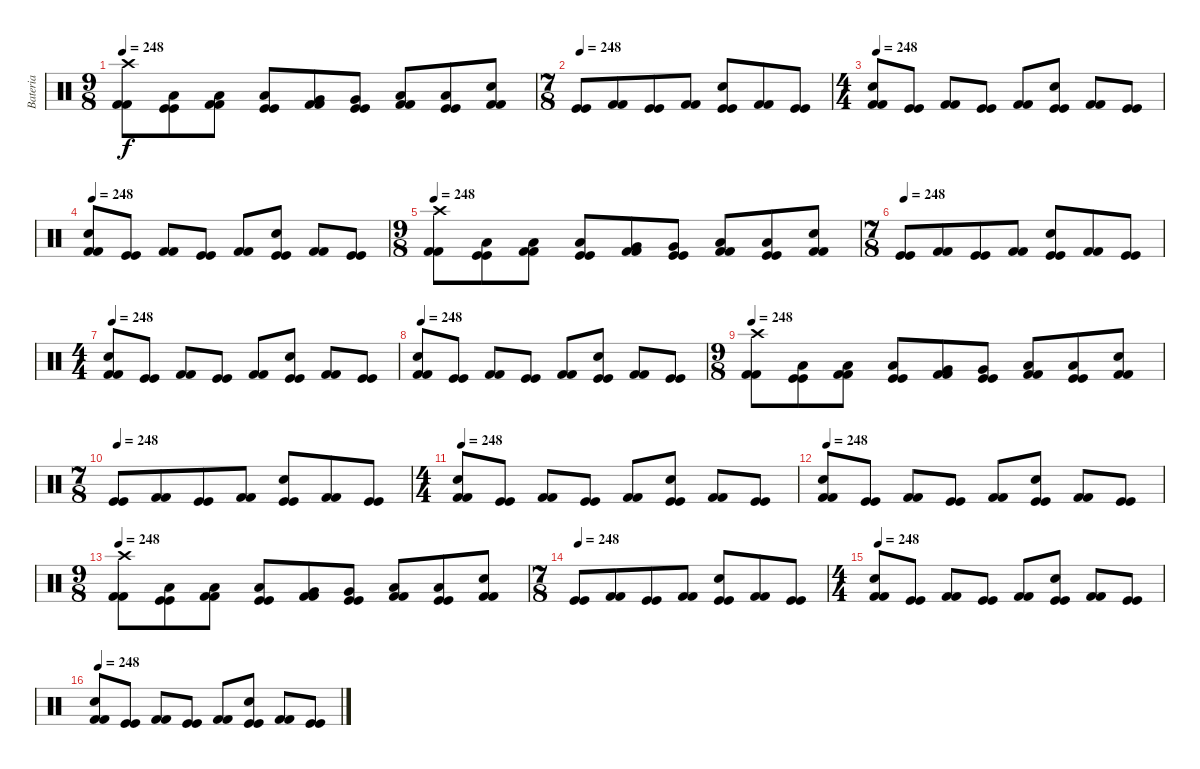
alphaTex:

\track ("Bateria" "Bateria") {instrument percussion}
\staff {score}
\articulation defaults
\ts (9 8)
\tempo 248
\clef neutral
\ks c
("Kick (hit) 2" "Kick (hit) 2" "Crash high (hit)").8{dy f} ("Kick (hit)" "Kick (hit)" "Low Floor Tom (hit)").8 ("Kick (hit) 2" "Kick (hit) 2" "Low Floor Tom (hit)").8 ("Kick (hit)" "Kick (hit)" "Low Floor Tom (hit)").8 ("Kick (hit) 2" "Kick (hit) 2" "Very Low Tom (hit)").8 ("Kick (hit)" "Kick (hit)" "Very Low Tom (hit)").8 ("Kick (hit) 2" "Kick (hit) 2" "Low Tom (hit)").8 ("Kick (hit)" "Kick (hit)" "Low Tom (hit)").8 ("Kick (hit) 2" "Kick (hit) 2" "Snare (hit) 2").8 |
\ts (7 8)
\tempo 248
("Kick (hit)" "Kick (hit)").8 ("Kick (hit) 2" "Kick (hit) 2").8 ("Kick (hit)" "Kick (hit)").8 ("Kick (hit) 2" "Kick (hit) 2").8 ("Kick (hit)" "Kick (hit)" "Snare (hit) 2").8 ("Kick (hit) 2" "Kick (hit) 2").8 ("Kick (hit)" "Kick (hit)").8 |
\ts (4 4)
\tempo 248
("Kick (hit) 2" "Kick (hit) 2" "Snare (hit) 2").8 ("Kick (hit)" "Kick (hit)").8 ("Kick (hit) 2" "Kick (hit) 2").8 ("Kick (hit)" "Kick (hit)").8 ("Kick (hit) 2" "Kick (hit) 2").8 ("Kick (hit)" "Kick (hit)" "Snare (hit) 2").8 ("Kick (hit) 2" "Kick (hit) 2").8 ("Kick (hit)" "Kick (hit)").8 |
\tempo 248
("Kick (hit) 2" "Kick (hit) 2" "Snare (hit) 2").8 ("Kick (hit)" "Kick (hit)").8 ("Kick (hit) 2" "Kick (hit) 2").8 ("Kick (hit)" "Kick (hit)").8 ("Kick (hit) 2" "Kick (hit) 2").8 ("Kick (hit)" "Kick (hit)" "Snare (hit) 2").8 ("Kick (hit) 2" "Kick (hit) 2").8 ("Kick (hit)" "Kick (hit)").8 |
\ts (9 8)
\tempo 248
("Kick (hit) 2" "Kick (hit) 2" "Crash high (hit)").8 ("Kick (hit)" "Kick (hit)" "Low Floor Tom (hit)").8 ("Kick (hit) 2" "Kick (hit) 2" "Low Floor Tom (hit)").8 ("Kick (hit)" "Kick (hit)" "Low Floor Tom (hit)").8 ("Kick (hit) 2" "Kick (hit) 2" "Very Low Tom (hit)").8 ("Kick (hit)" "Kick (hit)" "Very Low Tom (hit)").8 ("Kick (hit) 2" "Kick (hit) 2" "Low Tom (hit)").8 ("Kick (hit)" "Kick (hit)" "Low Tom (hit)").8 ("Kick (hit) 2" "Kick (hit) 2" "Snare (hit) 2").8 |
\ts (7 8)
\tempo 248
("Kick (hit)" "Kick (hit)").8 ("Kick (hit) 2" "Kick (hit) 2").8 ("Kick (hit)" "Kick (hit)").8 ("Kick (hit) 2" "Kick (hit) 2").8 ("Kick (hit)" "Kick (hit)" "Snare (hit) 2").8 ("Kick (hit) 2" "Kick (hit) 2").8 ("Kick (hit)" "Kick (hit)").8 |
\ts (4 4)
\tempo 248
("Kick (hit) 2" "Kick (hit) 2" "Snare (hit) 2").8 ("Kick (hit)" "Kick (hit)").8 ("Kick (hit) 2" "Kick (hit) 2").8 ("Kick (hit)" "Kick (hit)").8 ("Kick (hit) 2" "Kick (hit) 2").8 ("Kick (hit)" "Kick (hit)" "Snare (hit) 2").8 ("Kick (hit) 2" "Kick (hit) 2").8 ("Kick (hit)" "Kick (hit)").8 |
\tempo 248
("Kick (hit) 2" "Kick (hit) 2" "Snare (hit) 2").8 ("Kick (hit)" "Kick (hit)").8 ("Kick (hit) 2" "Kick (hit) 2").8 ("Kick (hit)" "Kick (hit)").8 ("Kick (hit) 2" "Kick (hit) 2").8 ("Kick (hit)" "Kick (hit)" "Snare (hit) 2").8 ("Kick (hit) 2" "Kick (hit) 2").8 ("Kick (hit)" "Kick (hit)").8 |
\ts (9 8)
\tempo 248
("Kick (hit) 2" "Kick (hit) 2" "Crash high (hit)").8 ("Kick (hit)" "Kick (hit)" "Low Floor Tom (hit)").8 ("Kick (hit) 2" "Kick (hit) 2" "Low Floor Tom (hit)").8 ("Kick (hit)" "Kick (hit)" "Low Floor Tom (hit)").8 ("Kick (hit) 2" "Kick (hit) 2" "Very Low Tom (hit)").8 ("Kick (hit)" "Kick (hit)" "Very Low Tom (hit)").8 ("Kick (hit) 2" "Kick (hit) 2" "Low Tom (hit)").8 ("Kick (hit)" "Kick (hit)" "Low Tom (hit)").8 ("Kick (hit) 2" "Kick (hit) 2" "Snare (hit) 2").8 |
\ts (7 8)
\tempo 248
("Kick (hit)" "Kick (hit)").8 ("Kick (hit) 2" "Kick (hit) 2").8 ("Kick (hit)" "Kick (hit)").8 ("Kick (hit) 2" "Kick (hit) 2").8 ("Kick (hit)" "Kick (hit)" "Snare (hit) 2").8 ("Kick (hit) 2" "Kick (hit) 2").8 ("Kick (hit)" "Kick (hit)").8 |
\ts (4 4)
\tempo 248
("Kick (hit) 2" "Kick (hit) 2" "Snare (hit) 2").8 ("Kick (hit)" "Kick (hit)").8 ("Kick (hit) 2" "Kick (hit) 2").8 ("Kick (hit)" "Kick (hit)").8 ("Kick (hit) 2" "Kick (hit) 2").8 ("Kick (hit)" "Kick (hit)" "Snare (hit) 2").8 ("Kick (hit) 2" "Kick (hit) 2").8 ("Kick (hit)" "Kick (hit)").8 |
\tempo 248
("Kick (hit) 2" "Kick (hit) 2" "Snare (hit) 2").8 ("Kick (hit)" "Kick (hit)").8 ("Kick (hit) 2" "Kick (hit) 2").8 ("Kick (hit)" "Kick (hit)").8 ("Kick (hit) 2" "Kick (hit) 2").8 ("Kick (hit)" "Kick (hit)" "Snare (hit) 2").8 ("Kick (hit) 2" "Kick (hit) 2").8 ("Kick (hit)" "Kick (hit)").8 |
\ts (9 8)
\tempo 248
("Kick (hit) 2" "Kick (hit) 2" "Crash high (hit)").8 ("Kick (hit)" "Kick (hit)" "Low Floor Tom (hit)").8 ("Kick (hit) 2" "Kick (hit) 2" "Low Floor Tom (hit)").8 ("Kick (hit)" "Kick (hit)" "Low Floor Tom (hit)").8 ("Kick (hit) 2" "Kick (hit) 2" "Very Low Tom (hit)").8 ("Kick (hit)" "Kick (hit)" "Very Low Tom (hit)").8 ("Kick (hit) 2" "Kick (hit) 2" "Low Tom (hit)").8 ("Kick (hit)" "Kick (hit)" "Low Tom (hit)").8 ("Kick (hit) 2" "Kick (hit) 2" "Snare (hit) 2").8 |
\ts (7 8)
\tempo 248
("Kick (hit)" "Kick (hit)").8 ("Kick (hit) 2" "Kick (hit) 2").8 ("Kick (hit)" "Kick (hit)").8 ("Kick (hit) 2" "Kick (hit) 2").8 ("Kick (hit)" "Kick (hit)" "Snare (hit) 2").8 ("Kick (hit) 2" "Kick (hit) 2").8 ("Kick (hit)" "Kick (hit)").8 |
\ts (4 4)
\tempo 248
("Kick (hit) 2" "Kick (hit) 2" "Snare (hit) 2").8 ("Kick (hit)" "Kick (hit)").8 ("Kick (hit) 2" "Kick (hit) 2").8 ("Kick (hit)" "Kick (hit)").8 ("Kick (hit) 2" "Kick (hit) 2").8 ("Kick (hit)" "Kick (hit)" "Snare (hit) 2").8 ("Kick (hit) 2" "Kick (hit) 2").8 ("Kick (hit)" "Kick (hit)").8 |
\tempo 248
("Kick (hit) 2" "Kick (hit) 2" "Snare (hit) 2").8 ("Kick (hit)" "Kick (hit)").8 ("Kick (hit) 2" "Kick (hit) 2").8 ("Kick (hit)" "Kick (hit)").8 ("Kick (hit) 2" "Kick (hit) 2").8 ("Kick (hit)" "Kick (hit)" "Snare (hit) 2").8 ("Kick (hit) 2" "Kick (hit) 2").8 ("Kick (hit)" "Kick (hit)").8
